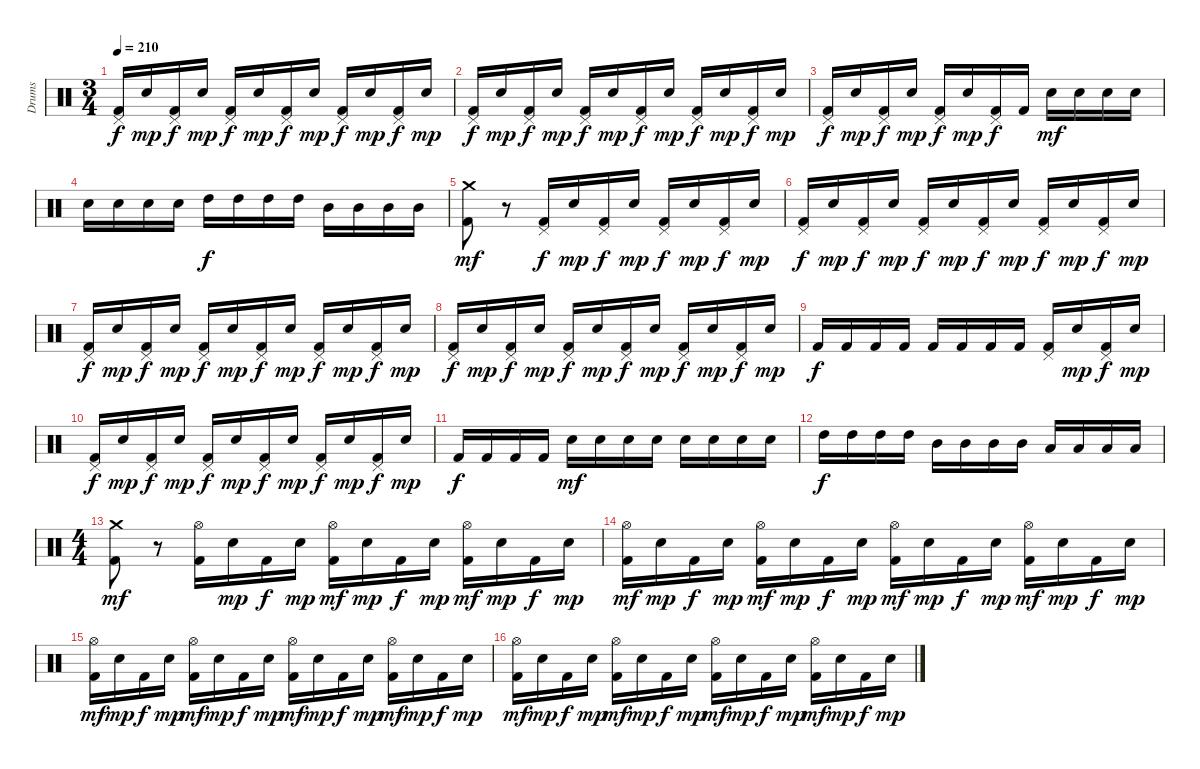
\track ("Drums" "Drums") {instrument percussion}
\staff {score}
\articulation defaults
\ts (3 4)
\tempo 210
\clef neutral
\ks c
("Pedal Hi-Hat (hit)" "Kick (hit) 2").16{dy f} "Electric Snare (hit)".16{dy mp} ("Pedal Hi-Hat (hit)" "Kick (hit) 2").16{dy f} "Electric Snare (hit)".16{dy mp} ("Pedal Hi-Hat (hit)" "Kick (hit) 2").16{dy f} "Electric Snare (hit)".16{dy mp} ("Pedal Hi-Hat (hit)" "Kick (hit) 2").16{dy f} "Electric Snare (hit)".16{dy mp} ("Pedal Hi-Hat (hit)" "Kick (hit) 2").16{dy f} "Electric Snare (hit)".16{dy mp} ("Pedal Hi-Hat (hit)" "Kick (hit) 2").16{dy f} "Electric Snare (hit)".16{dy mp} |
("Pedal Hi-Hat (hit)" "Kick (hit) 2").16{dy f} "Electric Snare (hit)".16{dy mp} ("Pedal Hi-Hat (hit)" "Kick (hit) 2").16{dy f} "Electric Snare (hit)".16{dy mp} ("Pedal Hi-Hat (hit)" "Kick (hit) 2").16{dy f} "Electric Snare (hit)".16{dy mp} ("Pedal Hi-Hat (hit)" "Kick (hit) 2").16{dy f} "Electric Snare (hit)".16{dy mp} ("Pedal Hi-Hat (hit)" "Kick (hit) 2").16{dy f} "Electric Snare (hit)".16{dy mp} ("Pedal Hi-Hat (hit)" "Kick (hit) 2").16{dy f} "Electric Snare (hit)".16{dy mp} |
("Pedal Hi-Hat (hit)" "Kick (hit) 2").16{dy f} "Electric Snare (hit)".16{dy mp} ("Pedal Hi-Hat (hit)" "Kick (hit) 2").16{dy f} "Electric Snare (hit)".16{dy mp} ("Pedal Hi-Hat (hit)" "Kick (hit) 2").16{dy f} "Electric Snare (hit)".16{dy mp} ("Pedal Hi-Hat (hit)" "Kick (hit) 2").16{dy f} "Kick (hit) 2".16 "Electric Snare (hit)".16{dy mf} "Electric Snare (hit)".16 "Electric Snare (hit)".16 "Electric Snare (hit)".16 |
"Electric Snare (hit)".16 "Electric Snare (hit)".16 "Electric Snare (hit)".16 "Electric Snare (hit)".16 "High Tom (hit)".16{dy f} "High Tom (hit)".16 "High Tom (hit)".16 "High Tom (hit)".16 "Mid Tom (hit)".16 "Mid Tom (hit)".16 "Mid Tom (hit)".16 "Mid Tom (hit)".16 |
("Crash medium (hit)" "Kick (hit) 2").8{dy mf} r.8 ("Pedal Hi-Hat (hit)" "Kick (hit) 2").16{dy f} "Electric Snare (hit)".16{dy mp} ("Pedal Hi-Hat (hit)" "Kick (hit) 2").16{dy f} "Electric Snare (hit)".16{dy mp} ("Pedal Hi-Hat (hit)" "Kick (hit) 2").16{dy f} "Electric Snare (hit)".16{dy mp} ("Pedal Hi-Hat (hit)" "Kick (hit) 2").16{dy f} "Electric Snare (hit)".16{dy mp} |
("Pedal Hi-Hat (hit)" "Kick (hit) 2").16{dy f} "Electric Snare (hit)".16{dy mp} ("Pedal Hi-Hat (hit)" "Kick (hit) 2").16{dy f} "Electric Snare (hit)".16{dy mp} ("Pedal Hi-Hat (hit)" "Kick (hit) 2").16{dy f} "Electric Snare (hit)".16{dy mp} ("Pedal Hi-Hat (hit)" "Kick (hit) 2").16{dy f} "Electric Snare (hit)".16{dy mp} ("Pedal Hi-Hat (hit)" "Kick (hit) 2").16{dy f} "Electric Snare (hit)".16{dy mp} ("Pedal Hi-Hat (hit)" "Kick (hit) 2").16{dy f} "Electric Snare (hit)".16{dy mp} |
("Pedal Hi-Hat (hit)" "Kick (hit) 2").16{dy f} "Electric Snare (hit)".16{dy mp} ("Pedal Hi-Hat (hit)" "Kick (hit) 2").16{dy f} "Electric Snare (hit)".16{dy mp} ("Pedal Hi-Hat (hit)" "Kick (hit) 2").16{dy f} "Electric Snare (hit)".16{dy mp} ("Pedal Hi-Hat (hit)" "Kick (hit) 2").16{dy f} "Electric Snare (hit)".16{dy mp} ("Pedal Hi-Hat (hit)" "Kick (hit) 2").16{dy f} "Electric Snare (hit)".16{dy mp} ("Pedal Hi-Hat (hit)" "Kick (hit) 2").16{dy f} "Electric Snare (hit)".16{dy mp} |
("Pedal Hi-Hat (hit)" "Kick (hit) 2").16{dy f} "Electric Snare (hit)".16{dy mp} ("Pedal Hi-Hat (hit)" "Kick (hit) 2").16{dy f} "Electric Snare (hit)".16{dy mp} ("Pedal Hi-Hat (hit)" "Kick (hit) 2").16{dy f} "Electric Snare (hit)".16{dy mp} ("Pedal Hi-Hat (hit)" "Kick (hit) 2").16{dy f} "Electric Snare (hit)".16{dy mp} ("Pedal Hi-Hat (hit)" "Kick (hit) 2").16{dy f} "Electric Snare (hit)".16{dy mp} ("Pedal Hi-Hat (hit)" "Kick (hit) 2").16{dy f} "Electric Snare (hit)".16{dy mp} |
"Kick (hit) 2".16{dy f} "Kick (hit) 2".16 "Kick (hit) 2".16 "Kick (hit) 2".16 "Kick (hit) 2".16 "Kick (hit) 2".16 "Kick (hit) 2".16 "Kick (hit) 2".16 ("Pedal Hi-Hat (hit)" "Kick (hit) 2").16 "Electric Snare (hit)".16{dy mp} ("Pedal Hi-Hat (hit)" "Kick (hit) 2").16{dy f} "Electric Snare (hit)".16{dy mp} |
("Pedal Hi-Hat (hit)" "Kick (hit) 2").16{dy f} "Electric Snare (hit)".16{dy mp} ("Pedal Hi-Hat (hit)" "Kick (hit) 2").16{dy f} "Electric Snare (hit)".16{dy mp} ("Pedal Hi-Hat (hit)" "Kick (hit) 2").16{dy f} "Electric Snare (hit)".16{dy mp} ("Pedal Hi-Hat (hit)" "Kick (hit) 2").16{dy f} "Electric Snare (hit)".16{dy mp} ("Pedal Hi-Hat (hit)" "Kick (hit) 2").16{dy f} "Electric Snare (hit)".16{dy mp} ("Pedal Hi-Hat (hit)" "Kick (hit) 2").16{dy f} "Electric Snare (hit)".16{dy mp} |
"Kick (hit) 2".16{dy f} "Kick (hit) 2".16 "Kick (hit) 2".16 "Kick (hit) 2".16 "Electric Snare (hit)".16{dy mf} "Electric Snare (hit)".16 "Electric Snare (hit)".16 "Electric Snare (hit)".16 "Electric Snare (hit)".16 "Electric Snare (hit)".16 "Electric Snare (hit)".16 "Electric Snare (hit)".16 |
"High Tom (hit)".16{dy f} "High Tom (hit)".16 "High Tom (hit)".16 "High Tom (hit)".16 "Mid Tom (hit)".16 "Mid Tom (hit)".16 "Mid Tom (hit)".16 "Mid Tom (hit)".16 "Low Tom (hit)".16 "Low Tom (hit)".16 "Low Tom (hit)".16 "Low Tom (hit)".16 |
\ts (4 4)
("Crash medium (hit)" "Kick (hit) 2").8{dy mf} r.8 ("Hi-Hat (open)" "Kick (hit) 2").16 "Electric Snare (hit)".16{dy mp} "Kick (hit) 2".16{dy f} "Electric Snare (hit)".16{dy mp} ("Hi-Hat (open)" "Kick (hit) 2").16{dy mf} "Electric Snare (hit)".16{dy mp} "Kick (hit) 2".16{dy f} "Electric Snare (hit)".16{dy mp} ("Hi-Hat (open)" "Kick (hit) 2").16{dy mf} "Electric Snare (hit)".16{dy mp} "Kick (hit) 2".16{dy f} "Electric Snare (hit)".16{dy mp} |
("Hi-Hat (open)" "Kick (hit) 2").16{dy mf} "Electric Snare (hit)".16{dy mp} "Kick (hit) 2".16{dy f} "Electric Snare (hit)".16{dy mp} ("Hi-Hat (open)" "Kick (hit) 2").16{dy mf} "Electric Snare (hit)".16{dy mp} "Kick (hit) 2".16{dy f} "Electric Snare (hit)".16{dy mp} ("Hi-Hat (open)" "Kick (hit) 2").16{dy mf} "Electric Snare (hit)".16{dy mp} "Kick (hit) 2".16{dy f} "Electric Snare (hit)".16{dy mp} ("Hi-Hat (open)" "Kick (hit) 2").16{dy mf} "Electric Snare (hit)".16{dy mp} "Kick (hit) 2".16{dy f} "Electric Snare (hit)".16{dy mp} |
("Hi-Hat (open)" "Kick (hit) 2").16{dy mf} "Electric Snare (hit)".16{dy mp} "Kick (hit) 2".16{dy f} "Electric Snare (hit)".16{dy mp} ("Hi-Hat (open)" "Kick (hit) 2").16{dy mf} "Electric Snare (hit)".16{dy mp} "Kick (hit) 2".16{dy f} "Electric Snare (hit)".16{dy mp} ("Hi-Hat (open)" "Kick (hit) 2").16{dy mf} "Electric Snare (hit)".16{dy mp} "Kick (hit) 2".16{dy f} "Electric Snare (hit)".16{dy mp} ("Hi-Hat (open)" "Kick (hit) 2").16{dy mf} "Electric Snare (hit)".16{dy mp} "Kick (hit) 2".16{dy f} "Electric Snare (hit)".16{dy mp} |
("Hi-Hat (open)" "Kick (hit) 2").16{dy mf} "Electric Snare (hit)".16{dy mp} "Kick (hit) 2".16{dy f} "Electric Snare (hit)".16{dy mp} ("Hi-Hat (open)" "Kick (hit) 2").16{dy mf} "Electric Snare (hit)".16{dy mp} "Kick (hit) 2".16{dy f} "Electric Snare (hit)".16{dy mp} ("Hi-Hat (open)" "Kick (hit) 2").16{dy mf} "Electric Snare (hit)".16{dy mp} "Kick (hit) 2".16{dy f} "Electric Snare (hit)".16{dy mp} ("Hi-Hat (open)" "Kick (hit) 2").16{dy mf} "Electric Snare (hit)".16{dy mp} "Kick (hit) 2".16{dy f} "Electric Snare (hit)".16{dy mp}
